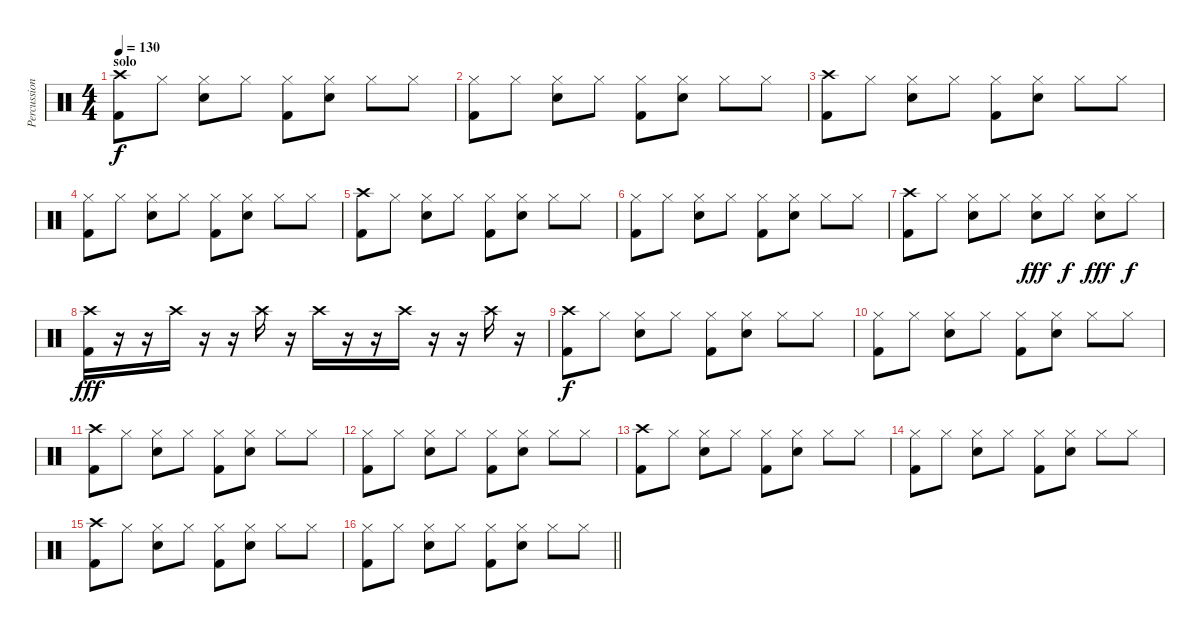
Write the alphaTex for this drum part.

\track ("Percussion" "Percussion") {instrument percussion}
\staff {score}
\articulation defaults
\ts (4 4)
\section ("" "solo")
\tempo 130
\clef neutral
\ks c
("Crash high (hit)" "Kick (hit) 2").8{dy f} "Hi-Hat (closed)".8 ("Hi-Hat (closed)" "Snare (hit) 2").8 "Hi-Hat (closed)".8 ("Hi-Hat (closed)" "Kick (hit) 2").8 ("Hi-Hat (closed)" "Snare (hit) 2").8 "Hi-Hat (closed)".8 "Hi-Hat (closed)".8 |
("Hi-Hat (closed)" "Kick (hit) 2").8 "Hi-Hat (closed)".8 ("Hi-Hat (closed)" "Snare (hit) 2").8 "Hi-Hat (closed)".8 ("Hi-Hat (closed)" "Kick (hit) 2").8 ("Hi-Hat (closed)" "Snare (hit) 2").8 "Hi-Hat (closed)".8 "Hi-Hat (closed)".8 |
("Crash high (hit)" "Kick (hit) 2").8 "Hi-Hat (closed)".8 ("Hi-Hat (closed)" "Snare (hit) 2").8 "Hi-Hat (closed)".8 ("Hi-Hat (closed)" "Kick (hit) 2").8 ("Hi-Hat (closed)" "Snare (hit) 2").8 "Hi-Hat (closed)".8 "Hi-Hat (closed)".8 |
("Hi-Hat (closed)" "Kick (hit) 2").8 "Hi-Hat (closed)".8 ("Hi-Hat (closed)" "Snare (hit) 2").8 "Hi-Hat (closed)".8 ("Hi-Hat (closed)" "Kick (hit) 2").8 ("Hi-Hat (closed)" "Snare (hit) 2").8 "Hi-Hat (closed)".8 "Hi-Hat (closed)".8 |
("Crash high (hit)" "Kick (hit) 2").8 "Hi-Hat (closed)".8 ("Hi-Hat (closed)" "Snare (hit) 2").8 "Hi-Hat (closed)".8 ("Hi-Hat (closed)" "Kick (hit) 2").8 ("Hi-Hat (closed)" "Snare (hit) 2").8 "Hi-Hat (closed)".8 "Hi-Hat (closed)".8 |
("Hi-Hat (closed)" "Kick (hit) 2").8 "Hi-Hat (closed)".8 ("Hi-Hat (closed)" "Snare (hit) 2").8 "Hi-Hat (closed)".8 ("Hi-Hat (closed)" "Kick (hit) 2").8 ("Hi-Hat (closed)" "Snare (hit) 2").8 "Hi-Hat (closed)".8 "Hi-Hat (closed)".8 |
("Crash high (hit)" "Kick (hit) 2").8 "Hi-Hat (closed)".8 ("Hi-Hat (closed)" "Snare (hit) 2").8 "Hi-Hat (closed)".8 ("Hi-Hat (closed)" "Snare (hit) 2").8{dy fff} "Hi-Hat (closed)".8{dy f} ("Hi-Hat (closed)" "Snare (hit) 2").8{dy fff} "Hi-Hat (closed)".8{dy f} |
("Crash high (hit)" "Kick (hit) 2").16{dy fff} r.16 r.16 "Crash high (hit)".16 r.16 r.16 "Crash high (hit)".16 r.16 "Crash high (hit)".16 r.16 r.16 "Crash high (hit)".16 r.16 r.16 "Crash high (hit)".16 r.16 |
("Crash high (hit)" "Kick (hit) 2").8{dy f} "Hi-Hat (closed)".8 ("Hi-Hat (closed)" "Snare (hit) 2").8 "Hi-Hat (closed)".8 ("Hi-Hat (closed)" "Kick (hit) 2").8 ("Hi-Hat (closed)" "Snare (hit) 2").8 "Hi-Hat (closed)".8 "Hi-Hat (closed)".8 |
("Hi-Hat (closed)" "Kick (hit) 2").8 "Hi-Hat (closed)".8 ("Hi-Hat (closed)" "Snare (hit) 2").8 "Hi-Hat (closed)".8 ("Hi-Hat (closed)" "Kick (hit) 2").8 ("Hi-Hat (closed)" "Snare (hit) 2").8 "Hi-Hat (closed)".8 "Hi-Hat (closed)".8 |
("Crash high (hit)" "Kick (hit) 2").8 "Hi-Hat (closed)".8 ("Hi-Hat (closed)" "Snare (hit) 2").8 "Hi-Hat (closed)".8 ("Hi-Hat (closed)" "Kick (hit) 2").8 ("Hi-Hat (closed)" "Snare (hit) 2").8 "Hi-Hat (closed)".8 "Hi-Hat (closed)".8 |
("Hi-Hat (closed)" "Kick (hit) 2").8 "Hi-Hat (closed)".8 ("Hi-Hat (closed)" "Snare (hit) 2").8 "Hi-Hat (closed)".8 ("Hi-Hat (closed)" "Kick (hit) 2").8 ("Hi-Hat (closed)" "Snare (hit) 2").8 "Hi-Hat (closed)".8 "Hi-Hat (closed)".8 |
("Crash high (hit)" "Kick (hit) 2").8 "Hi-Hat (closed)".8 ("Hi-Hat (closed)" "Snare (hit) 2").8 "Hi-Hat (closed)".8 ("Hi-Hat (closed)" "Kick (hit) 2").8 ("Hi-Hat (closed)" "Snare (hit) 2").8 "Hi-Hat (closed)".8 "Hi-Hat (closed)".8 |
("Hi-Hat (closed)" "Kick (hit) 2").8 "Hi-Hat (closed)".8 ("Hi-Hat (closed)" "Snare (hit) 2").8 "Hi-Hat (closed)".8 ("Hi-Hat (closed)" "Kick (hit) 2").8 ("Hi-Hat (closed)" "Snare (hit) 2").8 "Hi-Hat (closed)".8 "Hi-Hat (closed)".8 |
("Crash high (hit)" "Kick (hit) 2").8 "Hi-Hat (closed)".8 ("Hi-Hat (closed)" "Snare (hit) 2").8 "Hi-Hat (closed)".8 ("Hi-Hat (closed)" "Kick (hit) 2").8 ("Hi-Hat (closed)" "Snare (hit) 2").8 "Hi-Hat (closed)".8 "Hi-Hat (closed)".8 |
\barLineRight lightlight
("Hi-Hat (closed)" "Kick (hit) 2").8 "Hi-Hat (closed)".8 ("Hi-Hat (closed)" "Snare (hit) 2").8 "Hi-Hat (closed)".8 ("Hi-Hat (closed)" "Kick (hit) 2").8 ("Hi-Hat (closed)" "Snare (hit) 2").8 "Hi-Hat (closed)".8 "Hi-Hat (closed)".8
